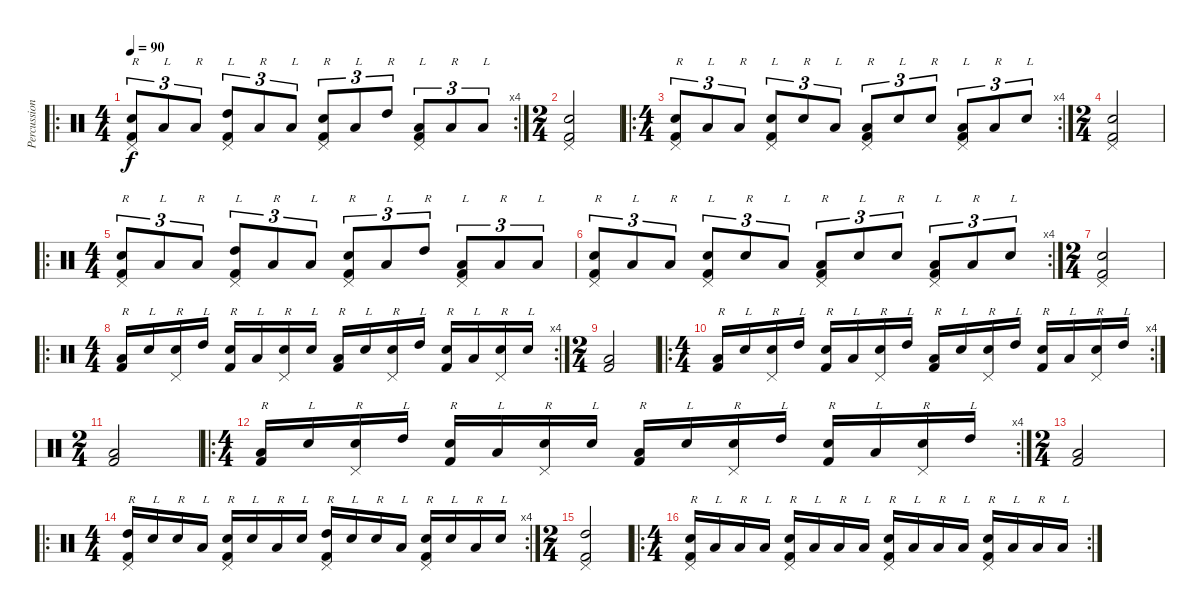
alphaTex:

\track ("Percussion" "Percussion") {instrument percussion}
\staff {score}
\articulation defaults
\ro
\rc 4
\ts (4 4)
\tempo 90
\clef neutral
\ks c
("Electric Snare (hit)" "Pedal Hi-Hat (hit)" "Kick (hit) 2").8{tu (3 2) txt "R" dy f} "Low Floor Tom (hit)".8{tu (3 2) txt "L"} "Low Floor Tom (hit)".8{tu (3 2) txt "R"} ("High Tom (hit)" "Pedal Hi-Hat (hit)" "Kick (hit) 2").8{tu (3 2) txt "L"} "Low Floor Tom (hit)".8{tu (3 2) txt "R"} "Low Floor Tom (hit)".8{tu (3 2) txt "L"} ("Electric Snare (hit)" "Pedal Hi-Hat (hit)" "Kick (hit) 2").8{tu (3 2) txt "R"} "Low Floor Tom (hit)".8{tu (3 2) txt "L"} "High Tom (hit)".8{tu (3 2) txt "R"} ("Low Floor Tom (hit)" "Pedal Hi-Hat (hit)" "Kick (hit) 2").8{tu (3 2) txt "L"} "Low Floor Tom (hit)".8{tu (3 2) txt "R"} "Low Floor Tom (hit)".8{tu (3 2) txt "L"} |
\ts (2 4)
("Electric Snare (hit)" "Pedal Hi-Hat (hit)" "Kick (hit) 2").2 |
\ro
\rc 4
\ts (4 4)
("Electric Snare (hit)" "Pedal Hi-Hat (hit)" "Kick (hit) 2").8{tu (3 2) txt "R"} "Low Floor Tom (hit)".8{tu (3 2) txt "L"} "Low Floor Tom (hit)".8{tu (3 2) txt "R"} ("Electric Snare (hit)" "Pedal Hi-Hat (hit)" "Kick (hit) 2").8{tu (3 2) txt "L"} "Electric Snare (hit)".8{tu (3 2) txt "R"} "Low Floor Tom (hit)".8{tu (3 2) txt "L"} ("Low Floor Tom (hit)" "Pedal Hi-Hat (hit)" "Kick (hit) 2").8{tu (3 2) txt "R"} "Electric Snare (hit)".8{tu (3 2) txt "L"} "Electric Snare (hit)".8{tu (3 2) txt "R"} ("Low Floor Tom (hit)" "Pedal Hi-Hat (hit)" "Kick (hit) 2").8{tu (3 2) txt "L"} "Low Floor Tom (hit)".8{tu (3 2) txt "R"} "Electric Snare (hit)".8{tu (3 2) txt "L"} |
\ts (2 4)
("Electric Snare (hit)" "Pedal Hi-Hat (hit)" "Kick (hit) 2").2 |
\ro
\ts (4 4)
("Electric Snare (hit)" "Pedal Hi-Hat (hit)" "Kick (hit) 2").8{tu (3 2) txt "R"} "Low Floor Tom (hit)".8{tu (3 2) txt "L"} "Low Floor Tom (hit)".8{tu (3 2) txt "R"} ("High Tom (hit)" "Pedal Hi-Hat (hit)" "Kick (hit) 2").8{tu (3 2) txt "L"} "Low Floor Tom (hit)".8{tu (3 2) txt "R"} "Low Floor Tom (hit)".8{tu (3 2) txt "L"} ("Electric Snare (hit)" "Pedal Hi-Hat (hit)" "Kick (hit) 2").8{tu (3 2) txt "R"} "Low Floor Tom (hit)".8{tu (3 2) txt "L"} "High Tom (hit)".8{tu (3 2) txt "R"} ("Low Floor Tom (hit)" "Pedal Hi-Hat (hit)" "Kick (hit) 2").8{tu (3 2) txt "L"} "Low Floor Tom (hit)".8{tu (3 2) txt "R"} "Low Floor Tom (hit)".8{tu (3 2) txt "L"} |
\rc 4
("Electric Snare (hit)" "Pedal Hi-Hat (hit)" "Kick (hit) 2").8{tu (3 2) txt "R"} "Low Floor Tom (hit)".8{tu (3 2) txt "L"} "Low Floor Tom (hit)".8{tu (3 2) txt "R"} ("Electric Snare (hit)" "Pedal Hi-Hat (hit)" "Kick (hit) 2").8{tu (3 2) txt "L"} "Electric Snare (hit)".8{tu (3 2) txt "R"} "Low Floor Tom (hit)".8{tu (3 2) txt "L"} ("Low Floor Tom (hit)" "Pedal Hi-Hat (hit)" "Kick (hit) 2").8{tu (3 2) txt "R"} "Electric Snare (hit)".8{tu (3 2) txt "L"} "Electric Snare (hit)".8{tu (3 2) txt "R"} ("Low Floor Tom (hit)" "Pedal Hi-Hat (hit)" "Kick (hit) 2").8{tu (3 2) txt "L"} "Low Floor Tom (hit)".8{tu (3 2) txt "R"} "Electric Snare (hit)".8{tu (3 2) txt "L"} |
\ts (2 4)
("Electric Snare (hit)" "Pedal Hi-Hat (hit)" "Kick (hit) 2").2 |
\ro
\rc 4
\ts (4 4)
("Low Floor Tom (hit)" "Kick (hit) 2").16{txt "R"} "Electric Snare (hit)".16{txt "L"} ("Electric Snare (hit)" "Pedal Hi-Hat (hit)").16{txt "R"} "High Tom (hit)".16{txt "L"} ("Electric Snare (hit)" "Kick (hit) 2").16{txt "R"} "Low Floor Tom (hit)".16{txt "L"} ("Electric Snare (hit)" "Pedal Hi-Hat (hit)").16{txt "R"} "Electric Snare (hit)".16{txt "L"} ("Low Floor Tom (hit)" "Kick (hit) 2").16{txt "R"} "Electric Snare (hit)".16{txt "L"} ("Electric Snare (hit)" "Pedal Hi-Hat (hit)").16{txt "R"} "High Tom (hit)".16{txt "L"} ("Electric Snare (hit)" "Kick (hit) 2").16{txt "R"} "Low Floor Tom (hit)".16{txt "L"} ("Electric Snare (hit)" "Pedal Hi-Hat (hit)").16{txt "R"} "Electric Snare (hit)".16{txt "L"} |
\ts (2 4)
("Low Floor Tom (hit)" "Kick (hit) 2").2 |
\ro
\rc 4
\ts (4 4)
("Low Floor Tom (hit)" "Kick (hit) 2").16{txt "R"} "Electric Snare (hit)".16{txt "L"} ("Electric Snare (hit)" "Pedal Hi-Hat (hit)").16{txt "R"} "High Tom (hit)".16{txt "L"} ("Electric Snare (hit)" "Kick (hit) 2").16{txt "R"} "Low Floor Tom (hit)".16{txt "L"} ("Electric Snare (hit)" "Pedal Hi-Hat (hit)").16{txt "R"} "High Tom (hit)".16{txt "L"} ("Low Floor Tom (hit)" "Kick (hit) 2").16{txt "R"} "Electric Snare (hit)".16{txt "L"} ("Electric Snare (hit)" "Pedal Hi-Hat (hit)").16{txt "R"} "High Tom (hit)".16{txt "L"} ("Electric Snare (hit)" "Kick (hit) 2").16{txt "R"} "Low Floor Tom (hit)".16{txt "L"} ("Electric Snare (hit)" "Pedal Hi-Hat (hit)").16{txt "R"} "High Tom (hit)".16{txt "L"} |
\ts (2 4)
("Low Floor Tom (hit)" "Kick (hit) 2").2 |
\ro
\rc 4
\ts (4 4)
("Low Floor Tom (hit)" "Kick (hit) 2").16{txt "R"} "Electric Snare (hit)".16{txt "L"} ("Electric Snare (hit)" "Pedal Hi-Hat (hit)").16{txt "R"} "High Tom (hit)".16{txt "L"} ("Electric Snare (hit)" "Kick (hit) 2").16{txt "R"} "Low Floor Tom (hit)".16{txt "L"} ("Electric Snare (hit)" "Pedal Hi-Hat (hit)").16{txt "R"} "Electric Snare (hit)".16{txt "L"} ("Low Floor Tom (hit)" "Kick (hit) 2").16{txt "R"} "Electric Snare (hit)".16{txt "L"} ("Electric Snare (hit)" "Pedal Hi-Hat (hit)").16{txt "R"} "High Tom (hit)".16{txt "L"} ("Electric Snare (hit)" "Kick (hit) 2").16{txt "R"} "Low Floor Tom (hit)".16{txt "L"} ("Electric Snare (hit)" "Pedal Hi-Hat (hit)").16{txt "R"} "High Tom (hit)".16{txt "L"} |
\ts (2 4)
("Low Floor Tom (hit)" "Kick (hit) 2").2 |
\ro
\rc 4
\ts (4 4)
("High Tom (hit)" "Pedal Hi-Hat (hit)" "Kick (hit) 2").16{txt "R"} "Electric Snare (hit)".16{txt "L"} "Electric Snare (hit)".16{txt "R"} "Low Floor Tom (hit)".16{txt "L"} ("Electric Snare (hit)" "Pedal Hi-Hat (hit)" "Kick (hit) 2").16{txt "R"} "Electric Snare (hit)".16{txt "L"} "Low Floor Tom (hit)".16{txt "R"} "Electric Snare (hit)".16{txt "L"} ("High Tom (hit)" "Pedal Hi-Hat (hit)" "Kick (hit) 2").16{txt "R"} "Electric Snare (hit)".16{txt "L"} "Electric Snare (hit)".16{txt "R"} "Low Floor Tom (hit)".16{txt "L"} ("Electric Snare (hit)" "Pedal Hi-Hat (hit)" "Kick (hit) 2").16{txt "R"} "Electric Snare (hit)".16{txt "L"} "Low Floor Tom (hit)".16{txt "R"} "Electric Snare (hit)".16{txt "L"} |
\ts (2 4)
("High Tom (hit)" "Kick (hit) 2" "Pedal Hi-Hat (hit)").2 |
\ro
\rc 2
\ts (4 4)
("Electric Snare (hit)" "Pedal Hi-Hat (hit)" "Kick (hit) 2").16{txt "R"} "Low Floor Tom (hit)".16{txt "L"} "Low Floor Tom (hit)".16{txt "R"} "Low Floor Tom (hit)".16{txt "L"} ("Electric Snare (hit)" "Pedal Hi-Hat (hit)" "Kick (hit) 2").16{txt "R"} "Low Floor Tom (hit)".16{txt "L"} "Low Floor Tom (hit)".16{txt "R"} "Low Floor Tom (hit)".16{txt "L"} ("Electric Snare (hit)" "Pedal Hi-Hat (hit)" "Kick (hit) 2").16{txt "R"} "Low Floor Tom (hit)".16{txt "L"} "Low Floor Tom (hit)".16{txt "R"} "Low Floor Tom (hit)".16{txt "L"} ("Electric Snare (hit)" "Pedal Hi-Hat (hit)" "Kick (hit) 2").16{txt "R"} "Low Floor Tom (hit)".16{txt "L"} "Low Floor Tom (hit)".16{txt "R"} "Low Floor Tom (hit)".16{txt "L"}
